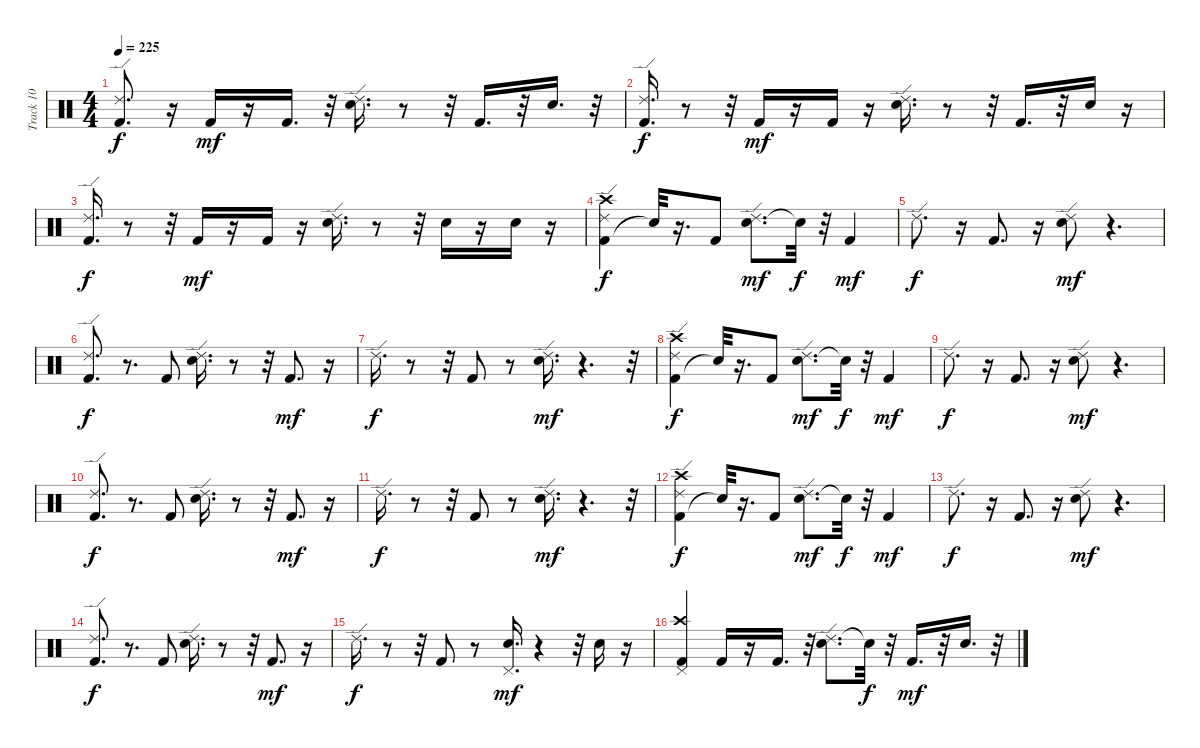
\track ("Track 10" "Track 10") {instrument percussion}
\staff {score}
\articulation defaults
\ts (4 4)
\tempo 225
\clef neutral
\ks c
("Ride (edge) 2" "Kick (hit) 2").8{d dy f} r.16 "Kick (hit) 2".16{dy mf} r.16 "Kick (hit) 2".16{d} r.32 ("Ride (edge) 2" "Electric Snare (hit)").16{d} r.8 r.32 "Kick (hit) 2".16{d} r.32 "Electric Snare (hit)".16{d} r.32 |
("Ride (edge) 2" "Kick (hit) 2").16{d dy f} r.8 r.32 "Kick (hit) 2".16{dy mf} r.16 "Kick (hit) 2".16 r.16 ("Ride (edge) 2" "Electric Snare (hit)").16{d} r.8 r.32 "Kick (hit) 2".16{d} r.32 "Electric Snare (hit)".16 r.16 |
("Ride (edge) 2" "Kick (hit) 2").16{d dy f} r.8 r.32 "Kick (hit) 2".16{dy mf} r.16 "Kick (hit) 2".16 r.16 ("Ride (edge) 2" "Electric Snare (hit)").16{d} r.8 r.32 "Electric Snare (hit)".16 r.16 "Electric Snare (hit)".16 r.16 |
("Kick (hit) 2" "Crash high (hit)" "Ride (edge) 2").4{dy f} "Snare (hit)"{t}.32 r.16{d} "Kick (hit) 2".8 ("Electric Snare (hit)" "Ride (edge) 2").8{d dy mf} "Snare (hit)"{t}.32{dy f} r.32 "Kick (hit) 2".4{dy mf} |
"Ride (edge) 2".8{d dy f} r.16 "Kick (hit) 2".8{d} r.16 ("Electric Snare (hit)" "Ride (edge) 2").8{dy mf} r.4{d} |
("Kick (hit) 2" "Ride (edge) 2").8{d dy f} r.8{d} "Kick (hit) 2".8 ("Electric Snare (hit)" "Ride (edge) 2").16{d} r.8 r.32 "Kick (hit) 2".8{d dy mf} r.16 |
"Ride (edge) 2".16{d dy f} r.8 r.32 "Kick (hit) 2".8 r.8 ("Electric Snare (hit)" "Ride (edge) 2").16{d dy mf} r.4{d} r.32 |
("Kick (hit) 2" "Crash high (hit)" "Ride (edge) 2").4{dy f} "Snare (hit)"{t}.32 r.16{d} "Kick (hit) 2".8 ("Electric Snare (hit)" "Ride (edge) 2").8{d dy mf} "Snare (hit)"{t}.32{dy f} r.32 "Kick (hit) 2".4{dy mf} |
"Ride (edge) 2".8{d dy f} r.16 "Kick (hit) 2".8{d} r.16 ("Electric Snare (hit)" "Ride (edge) 2").8{dy mf} r.4{d} |
("Kick (hit) 2" "Ride (edge) 2").8{d dy f} r.8{d} "Kick (hit) 2".8 ("Electric Snare (hit)" "Ride (edge) 2").16{d} r.8 r.32 "Kick (hit) 2".8{d dy mf} r.16 |
"Ride (edge) 2".16{d dy f} r.8 r.32 "Kick (hit) 2".8 r.8 ("Electric Snare (hit)" "Ride (edge) 2").16{d dy mf} r.4{d} r.32 |
("Kick (hit) 2" "Crash high (hit)" "Ride (edge) 2").4{dy f} "Snare (hit)"{t}.32 r.16{d} "Kick (hit) 2".8 ("Electric Snare (hit)" "Ride (edge) 2").8{d dy mf} "Snare (hit)"{t}.32{dy f} r.32 "Kick (hit) 2".4{dy mf} |
"Ride (edge) 2".8{d dy f} r.16 "Kick (hit) 2".8{d} r.16 ("Electric Snare (hit)" "Ride (edge) 2").8{dy mf} r.4{d} |
("Kick (hit) 2" "Ride (edge) 2").8{d dy f} r.8{d} "Kick (hit) 2".8 ("Electric Snare (hit)" "Ride (edge) 2").16{d} r.8 r.32 "Kick (hit) 2".8{d dy mf} r.16 |
"Ride (edge) 2".16{d dy f} r.8 r.32 "Kick (hit) 2".8 r.8 ("Electric Snare (hit)" "Pedal Hi-Hat (hit)").16{d dy mf} r.4 r.32 "Electric Snare (hit)".16 r.16 |
("Kick (hit) 2" "Crash high (hit)" "Pedal Hi-Hat (hit)").4 "Kick (hit) 2".16 r.16 "Kick (hit) 2".16{d} r.32 ("Ride (edge) 2" "Electric Snare (hit)").8{d} "Snare (hit)"{t}.32{dy f} r.32 "Kick (hit) 2".16{d dy mf} r.32 "Electric Snare (hit)".16{d} r.32
